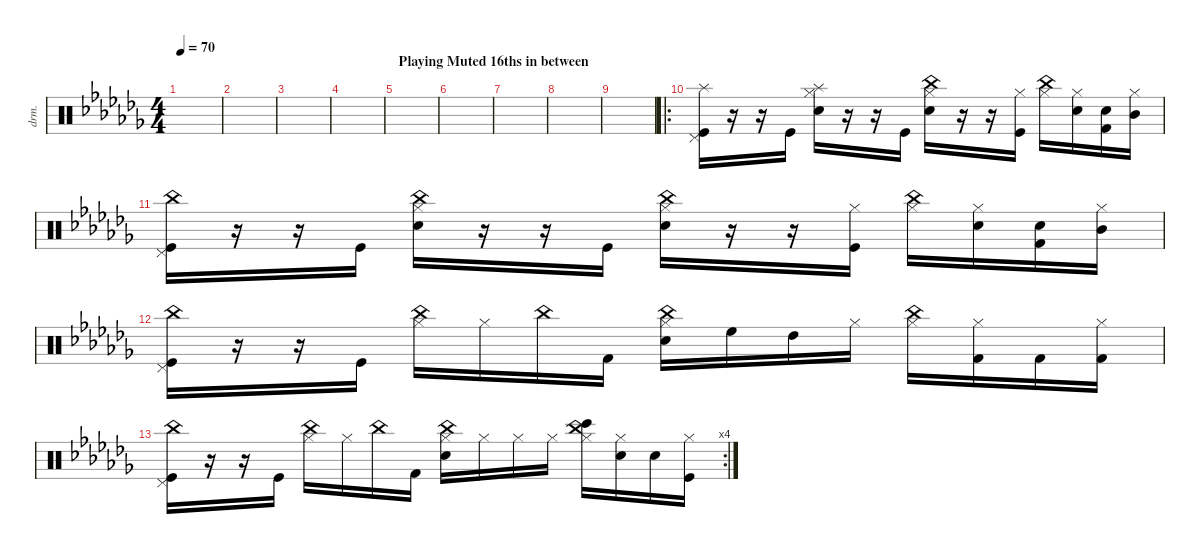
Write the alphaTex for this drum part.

\defaultSystemsLayout 4
\hideDynamics
\bracketExtendMode nobrackets
\track ("Drumkit" "drm.") {instrument percussion}
\staff {score}
\articulation defaults
\ts (4 4)
\tempo 70
\clef neutral
\ks abminor
|
|
|
|
\section ("" "Playing Muted 16ths in between")
|
|
|
|
|
\ro
("Splash (hit)"{acc forcenatural} "Pedal Hi-Hat (hit)"{acc forcenatural} "Kick (hit)"{acc forcenatural}).16 r.16 r.16 "Kick (hit)"{acc forcenatural}.16 ("Hi-Hat (closed)"{acc forcenatural} "Splash (hit)"{acc forcenatural} "Snare (hit) 2"{acc forcenatural}).16 r.16 r.16 "Kick (hit)"{acc forcenatural}.16 ("Hi-Hat (closed)"{acc forcenatural} "Snare (hit) 2"{acc forcenatural} "China (hit)"{acc forcenatural}).16 r.16 r.16 ("Hi-Hat (closed)"{acc forcenatural} "Kick (hit)"{acc forcenatural}).16 ("Hi-Hat (closed)"{acc forcenatural} "China (hit)"{acc forcenatural}).16 ("Hi-Hat (closed)"{acc forcenatural} "Snare (hit) 2"{acc forcenatural}).16 ("Kick (hit) 2"{acc forcenatural} "Snare (hit) 2"{acc forcenatural}).16 ("Hi-Hat (closed)"{acc forcenatural} "Mid Tom (hit)"{acc forcenatural}).16 |
("China (hit)"{acc forcenatural} "Pedal Hi-Hat (hit)"{acc forcenatural} "Kick (hit)"{acc forcenatural}).16{beam Down} r.16{beam Down} r.16{beam Down} "Kick (hit)"{acc forcenatural}.16{beam Down} ("Hi-Hat (closed)"{acc forcenatural} "China (hit)"{acc forcenatural} "Snare (hit) 2"{acc forcenatural}).16{beam Down} r.16{beam Down} r.16{beam Down} "Kick (hit)"{acc forcenatural}.16{beam Down} ("Hi-Hat (closed)"{acc forcenatural} "Snare (hit) 2"{acc forcenatural} "China (hit)"{acc forcenatural}).16{beam Down} r.16{beam Down} r.16{beam Down} ("Hi-Hat (closed)"{acc forcenatural} "Kick (hit)"{acc forcenatural}).16{beam Down} ("Hi-Hat (closed)"{acc forcenatural} "China (hit)"{acc forcenatural}).16{beam Down} ("Hi-Hat (closed)"{acc forcenatural} "Snare (hit) 2"{acc forcenatural}).16{beam Down} ("Kick (hit) 2"{acc forcenatural} "Snare (hit) 2"{acc forcenatural}).16{beam Down} ("Hi-Hat (closed)"{acc forcenatural} "Mid Tom (hit)"{acc forcenatural}).16{beam Down} |
("China (hit)"{acc forcenatural} "Pedal Hi-Hat (hit)"{acc forcenatural} "Kick (hit)"{acc forcenatural}).16{beam Down} r.16{beam Down} r.16{beam Down} "Kick (hit)"{acc forcenatural}.16{beam Down} ("Hi-Hat (closed)"{acc forcenatural} "China (hit)"{acc forcenatural}).16{beam Down} "Hi-Hat (closed)"{acc forcenatural}.16{beam Down} "China (hit)"{acc forcenatural}.16{beam Down} "Kick (hit) 2"{acc forcenatural}.16{beam Down} ("Hi-Hat (closed)"{acc forcenatural} "Snare (hit) 2"{acc forcenatural} "China (hit)"{acc forcenatural}).16{beam Down} "High Floor Tom (hit)"{acc forcenatural}.16{beam Down} "High Tom (hit)"{acc forcenatural}.16{beam Down} "Hi-Hat (closed)"{acc forcenatural}.16{beam Down} ("Hi-Hat (closed)"{acc forcenatural} "China (hit)"{acc forcenatural}).16{beam Down} ("Hi-Hat (closed)"{acc forcenatural} "Kick (hit) 2"{acc forcenatural}).16{beam Down} "Kick (hit) 2"{acc forcenatural}.16{beam Down} ("Hi-Hat (closed)"{acc forcenatural} "Kick (hit) 2"{acc forcenatural}).16{beam Down} |
\rc 4
("China (hit)"{acc forcenatural} "Pedal Hi-Hat (hit)"{acc forcenatural} "Kick (hit)"{acc forcenatural}).16{beam Down} r.16{beam Down} r.16{beam Down} "Kick (hit)"{acc forcenatural}.16{beam Down} ("Hi-Hat (closed)"{acc forcenatural} "China (hit)"{acc forcenatural}).16{beam Down} "Hi-Hat (closed)"{acc forcenatural}.16{beam Down} "China (hit)"{acc forcenatural}.16{beam Down} "Kick (hit) 2"{acc forcenatural}.16{beam Down} ("Hi-Hat (closed)"{acc forcenatural} "Snare (hit) 2"{acc forcenatural} "China (hit)"{acc forcenatural}).16{beam Down} "Hi-Hat (closed)"{acc forcenatural}.16{beam Down} "Hi-Hat (closed)"{acc forcenatural}.16{beam Down} "Hi-Hat (closed)"{acc forcenatural}.16{beam Down} ("Hi-Hat (closed)"{acc forcenatural} "Bongo High (hit)"{acc forcenatural} "China (hit)"{acc forcenatural}).16{beam Down} ("Hi-Hat (closed)"{acc forcenatural} "Snare (hit) 2"{acc forcenatural}).16{beam Down} "Snare (hit) 2"{acc forcenatural}.16{beam Down} ("Hi-Hat (closed)"{acc forcenatural} "Kick (hit)"{acc forcenatural}).16{beam Down}
